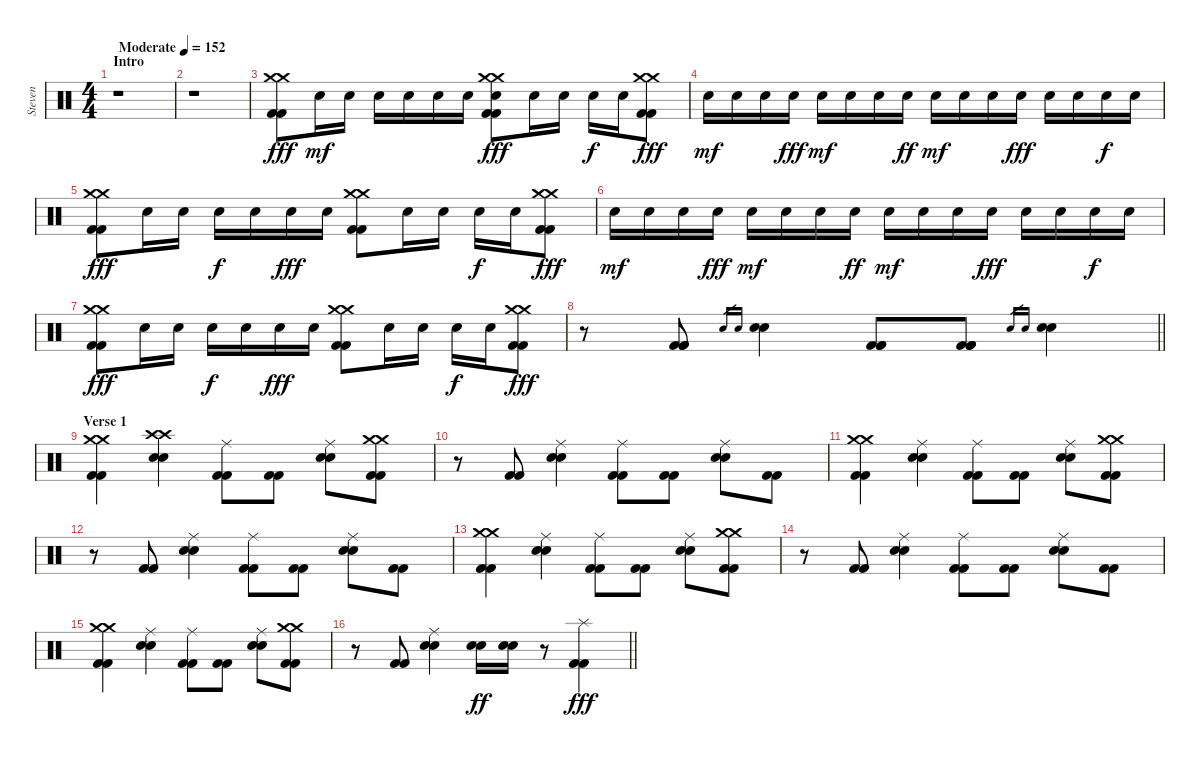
\track ("Steven" "Steven") {instrument percussion}
\staff {score}
\articulation defaults
\ts (4 4)
\section ("" "Intro")
\tempo (152 "Moderate")
\clef neutral
\ks c
r.1{dy fff} |
r.1 |
("Crash medium (hit)" "Crash medium (hit)" "Kick (hit) 2" "Kick (hit) 2").8 "Electric Snare (hit)".16{dy mf} "Electric Snare (hit)".16 "Electric Snare (hit)".16 "Electric Snare (hit)".16 "Electric Snare (hit)".16 "Electric Snare (hit)".16 ("Crash medium (hit)" "Crash medium (hit)" "Electric Snare (hit)" "Kick (hit) 2" "Kick (hit) 2").8{dy fff} "Electric Snare (hit)".16 "Electric Snare (hit)".16 "Electric Snare (hit)".16{dy f} "Electric Snare (hit)".16 ("Crash medium (hit)" "Crash medium (hit)" "Kick (hit) 2" "Kick (hit) 2").8{dy fff} |
"Electric Snare (hit)".16{dy mf} "Electric Snare (hit)".16 "Electric Snare (hit)".16 "Electric Snare (hit)".16{dy fff} "Electric Snare (hit)".16{dy mf} "Electric Snare (hit)".16 "Electric Snare (hit)".16 "Electric Snare (hit)".16{dy ff} "Electric Snare (hit)".16{dy mf} "Electric Snare (hit)".16 "Electric Snare (hit)".16 "Electric Snare (hit)".16{dy fff} "Electric Snare (hit)".16 "Electric Snare (hit)".16 "Electric Snare (hit)".16{dy f} "Electric Snare (hit)".16 |
("Crash medium (hit)" "Crash medium (hit)" "Kick (hit) 2" "Kick (hit) 2").8{dy fff} "Electric Snare (hit)".16 "Electric Snare (hit)".16 "Electric Snare (hit)".16{dy f} "Electric Snare (hit)".16 "Electric Snare (hit)".16{dy fff} "Electric Snare (hit)".16 ("Crash medium (hit)" "Crash medium (hit)" "Kick (hit) 2" "Kick (hit) 2").8 "Electric Snare (hit)".16 "Electric Snare (hit)".16 "Electric Snare (hit)".16{dy f} "Electric Snare (hit)".16 ("Crash medium (hit)" "Crash medium (hit)" "Kick (hit) 2" "Kick (hit) 2").8{dy fff} |
"Electric Snare (hit)".16{dy mf} "Electric Snare (hit)".16 "Electric Snare (hit)".16 "Electric Snare (hit)".16{dy fff} "Electric Snare (hit)".16{dy mf} "Electric Snare (hit)".16 "Electric Snare (hit)".16 "Electric Snare (hit)".16{dy ff} "Electric Snare (hit)".16{dy mf} "Electric Snare (hit)".16 "Electric Snare (hit)".16 "Electric Snare (hit)".16{dy fff} "Electric Snare (hit)".16 "Electric Snare (hit)".16 "Electric Snare (hit)".16{dy f} "Electric Snare (hit)".16 |
("Crash medium (hit)" "Crash medium (hit)" "Kick (hit) 2" "Kick (hit) 2").8{dy fff} "Electric Snare (hit)".16 "Electric Snare (hit)".16 "Electric Snare (hit)".16{dy f} "Electric Snare (hit)".16 "Electric Snare (hit)".16{dy fff} "Electric Snare (hit)".16 ("Crash medium (hit)" "Crash medium (hit)" "Kick (hit) 2" "Kick (hit) 2").8 "Electric Snare (hit)".16 "Electric Snare (hit)".16 "Electric Snare (hit)".16{dy f} "Electric Snare (hit)".16 ("Crash medium (hit)" "Crash medium (hit)" "Kick (hit) 2" "Kick (hit) 2").8{dy fff} |
\barLineRight lightlight
r.8 ("Kick (hit) 2" "Kick (hit) 2" "Kick (hit) 2").8 "Electric Snare (hit)".16{gr} "Electric Snare (hit)".16{gr} ("Electric Snare (hit)" "Electric Snare (hit)").4 ("Kick (hit) 2" "Kick (hit) 2" "Kick (hit) 2").8 ("Kick (hit) 2" "Kick (hit) 2" "Kick (hit) 2").8 "Electric Snare (hit)".16{gr} "Electric Snare (hit)".16{gr} ("Electric Snare (hit)" "Electric Snare (hit)").4 |
\section ("" "Verse 1")
("Crash medium (hit)" "Crash medium (hit)" "Kick (hit) 2" "Kick (hit) 2").4 ("Crash high (hit)" "Crash high (hit)" "Electric Snare (hit)" "Electric Snare (hit)").4 ("Ride (middle)" "Kick (hit) 2" "Kick (hit) 2").8 ("Kick (hit) 2" "Kick (hit) 2").8 ("Ride (middle)" "Electric Snare (hit)" "Electric Snare (hit)").8 ("Crash medium (hit)" "Crash medium (hit)" "Kick (hit) 2" "Kick (hit) 2").8 |
r.8 ("Kick (hit) 2" "Kick (hit) 2").8 ("Ride (middle)" "Electric Snare (hit)" "Electric Snare (hit)").4 ("Ride (middle)" "Kick (hit) 2" "Kick (hit) 2").8 ("Kick (hit) 2" "Kick (hit) 2").8 ("Ride (middle)" "Electric Snare (hit)" "Electric Snare (hit)").8 ("Kick (hit) 2" "Kick (hit) 2").8 |
("Crash medium (hit)" "Crash medium (hit)" "Kick (hit) 2" "Kick (hit) 2").4 ("Ride (middle)" "Electric Snare (hit)" "Electric Snare (hit)").4 ("Ride (middle)" "Kick (hit) 2" "Kick (hit) 2").8 ("Kick (hit) 2" "Kick (hit) 2").8 ("Ride (middle)" "Electric Snare (hit)" "Electric Snare (hit)").8 ("Crash medium (hit)" "Crash medium (hit)" "Kick (hit) 2" "Kick (hit) 2").8 |
r.8 ("Kick (hit) 2" "Kick (hit) 2").8 ("Ride (middle)" "Electric Snare (hit)" "Electric Snare (hit)").4 ("Ride (middle)" "Kick (hit) 2" "Kick (hit) 2").8 ("Kick (hit) 2" "Kick (hit) 2").8 ("Ride (middle)" "Electric Snare (hit)" "Electric Snare (hit)").8 ("Kick (hit) 2" "Kick (hit) 2").8 |
("Crash medium (hit)" "Crash medium (hit)" "Kick (hit) 2" "Kick (hit) 2").4 ("Ride (middle)" "Electric Snare (hit)" "Electric Snare (hit)").4 ("Ride (middle)" "Kick (hit) 2" "Kick (hit) 2").8 ("Kick (hit) 2" "Kick (hit) 2").8 ("Ride (middle)" "Electric Snare (hit)" "Electric Snare (hit)").8 ("Crash medium (hit)" "Crash medium (hit)" "Kick (hit) 2" "Kick (hit) 2").8 |
r.8 ("Kick (hit) 2" "Kick (hit) 2").8 ("Ride (middle)" "Electric Snare (hit)" "Electric Snare (hit)").4 ("Ride (middle)" "Kick (hit) 2" "Kick (hit) 2").8 ("Kick (hit) 2" "Kick (hit) 2").8 ("Ride (middle)" "Electric Snare (hit)" "Electric Snare (hit)").8 ("Kick (hit) 2" "Kick (hit) 2").8 |
("Crash medium (hit)" "Crash medium (hit)" "Kick (hit) 2" "Kick (hit) 2").4 ("Ride (middle)" "Electric Snare (hit)" "Electric Snare (hit)").4 ("Ride (middle)" "Kick (hit) 2" "Kick (hit) 2").8 ("Kick (hit) 2" "Kick (hit) 2").8 ("Ride (middle)" "Electric Snare (hit)" "Electric Snare (hit)").8 ("Crash medium (hit)" "Crash medium (hit)" "Kick (hit) 2" "Kick (hit) 2").8 |
\barLineRight lightlight
r.8 ("Kick (hit) 2" "Kick (hit) 2").8 ("Ride (middle)" "Electric Snare (hit)" "Electric Snare (hit)").4 ("Electric Snare (hit)" "Electric Snare (hit)").16{dy ff} ("Electric Snare (hit)" "Electric Snare (hit)").16 r.8 ("Splash (hit)" "Kick (hit) 2" "Kick (hit) 2").4{dy fff}
